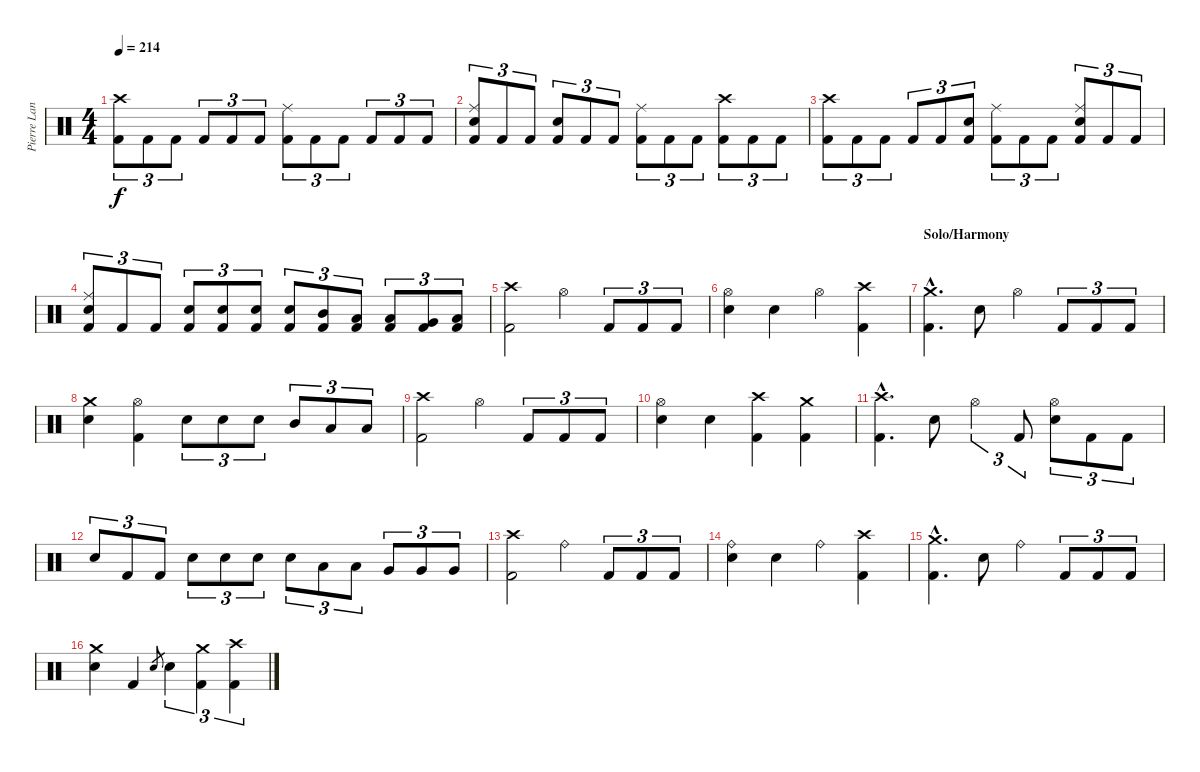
\track ("Pierre Langlois (Drums)" "Pierre Lan") {instrument percussion}
\staff {score}
\articulation defaults
\ts (4 4)
\tempo 214
\clef neutral
\ks c
("Crash high (hit)" "Kick (hit) 2").8{tu (3 2) dy f} "Kick (hit) 2".8{tu (3 2)} "Kick (hit) 2".8{tu (3 2)} "Kick (hit) 2".8{tu (3 2)} "Kick (hit) 2".8{tu (3 2)} "Kick (hit) 2".8{tu (3 2)} ("Ride (middle)" "Kick (hit) 2").8{tu (3 2)} "Kick (hit) 2".8{tu (3 2)} "Kick (hit) 2".8{tu (3 2)} "Kick (hit) 2".8{tu (3 2)} "Kick (hit) 2".8{tu (3 2)} "Kick (hit) 2".8{tu (3 2)} |
("Snare (hit) 2" "Ride (middle)" "Kick (hit) 2").8{tu (3 2)} "Kick (hit) 2".8{tu (3 2)} "Kick (hit) 2".8{tu (3 2)} ("Snare (hit) 2" "Kick (hit) 2").8{tu (3 2)} "Kick (hit) 2".8{tu (3 2)} "Kick (hit) 2".8{tu (3 2)} ("Ride (middle)" "Kick (hit) 2").8{tu (3 2)} "Kick (hit) 2".8{tu (3 2)} "Kick (hit) 2".8{tu (3 2)} ("Crash high (hit)" "Kick (hit) 2").8{tu (3 2)} "Kick (hit) 2".8{tu (3 2)} "Kick (hit) 2".8{tu (3 2)} |
("Crash high (hit)" "Kick (hit) 2").8{tu (3 2)} "Kick (hit) 2".8{tu (3 2)} "Kick (hit) 2".8{tu (3 2)} "Kick (hit) 2".8{tu (3 2)} "Kick (hit) 2".8{tu (3 2)} ("Snare (hit) 2" "Kick (hit) 2").8{tu (3 2)} ("Ride (middle)" "Kick (hit) 2").8{tu (3 2)} "Kick (hit) 2".8{tu (3 2)} "Kick (hit) 2".8{tu (3 2)} ("Ride (middle)" "Snare (hit) 2" "Kick (hit) 2").8{tu (3 2)} "Kick (hit) 2".8{tu (3 2)} "Kick (hit) 2".8{tu (3 2)} |
("Snare (hit) 2" "Ride (middle)" "Kick (hit) 2").8{tu (3 2)} "Kick (hit) 2".8{tu (3 2)} "Kick (hit) 2".8{tu (3 2)} ("Snare (hit) 2" "Kick (hit) 2").8{tu (3 2)} ("Snare (hit) 2" "Kick (hit) 2").8{tu (3 2)} ("Snare (hit) 2" "Kick (hit) 2").8{tu (3 2)} ("Snare (hit) 2" "Kick (hit) 2").8{tu (3 2)} ("Mid Tom (hit)" "Kick (hit) 2").8{tu (3 2)} ("Low Tom (hit)" "Kick (hit) 2").8{tu (3 2)} ("Low Tom (hit)" "Kick (hit) 2").8{tu (3 2)} ("Very Low Tom (hit)" "Kick (hit) 2").8{tu (3 2)} ("Low Floor Tom (hit)" "Kick (hit) 2").8{tu (3 2)} |
("Crash high (hit)" "Kick (hit) 2").2 "Hi-Hat (open)".4 "Kick (hit) 2".8{tu (3 2)} "Kick (hit) 2".8{tu (3 2)} "Kick (hit) 2".8{tu (3 2)} |
("Hi-Hat (open)" "Snare (hit) 2").4 "Snare (hit) 2".4 "Hi-Hat (open)".4 ("Crash high (hit)" "Kick (hit) 2").4 |
\section ("" "Solo/Harmony")
("Crash medium (hit)"{hac} "Kick (hit) 2"{hac}).4{d} "Snare (hit) 2".8 "Hi-Hat (open)".4 "Kick (hit) 2".8{tu (3 2)} "Kick (hit) 2".8{tu (3 2)} "Kick (hit) 2".8{tu (3 2)} |
("Crash medium (hit)" "Snare (hit) 2").4 ("Hi-Hat (open)" "Kick (hit) 2").4 "Snare (hit) 2".8{tu (3 2)} "Snare (hit) 2".8{tu (3 2)} "Snare (hit) 2".8{tu (3 2)} "Mid Tom (hit)".8{tu (3 2)} "Low Tom (hit)".8{tu (3 2)} "Low Floor Tom (hit)".8{tu (3 2)} |
("Crash high (hit)" "Kick (hit) 2").2 "Hi-Hat (open)".4 "Kick (hit) 2".8{tu (3 2)} "Kick (hit) 2".8{tu (3 2)} "Kick (hit) 2".8{tu (3 2)} |
("Hi-Hat (open)" "Snare (hit) 2").4 "Snare (hit) 2".4 ("Crash high (hit)" "Kick (hit) 2").4 ("Crash medium (hit)" "Kick (hit) 2").4 |
("Crash high (hit)"{hac} "Kick (hit) 2"{hac}).4{d} "Snare (hit) 2".8 "Hi-Hat (open)".4{tu (3 2)} "Kick (hit) 2".8{tu (3 2)} ("Hi-Hat (open)" "Snare (hit) 2").8{tu (3 2)} "Kick (hit) 2".8{tu (3 2)} "Kick (hit) 2".8{tu (3 2)} |
"Snare (hit) 2".8{tu (3 2)} "Kick (hit) 2".8{tu (3 2)} "Kick (hit) 2".8{tu (3 2)} "Snare (hit) 2".8{tu (3 2)} "Snare (hit) 2".8{tu (3 2)} "Snare (hit) 2".8{tu (3 2)} "Snare (hit) 2".8{tu (3 2)} "Low Tom (hit)".8{tu (3 2)} "Low Tom (hit)".8{tu (3 2)} "Very Low Tom (hit)".8{tu (3 2)} "Very Low Tom (hit)".8{tu (3 2)} "Very Low Tom (hit)".8{tu (3 2)} |
("Crash high (hit)" "Kick (hit) 2").2 "Ride (bell)".4 "Kick (hit) 2".8{tu (3 2)} "Kick (hit) 2".8{tu (3 2)} "Kick (hit) 2".8{tu (3 2)} |
("Ride (bell)" "Snare (hit) 2").4 "Snare (hit) 2".4 "Ride (bell)".4 ("Crash high (hit)" "Kick (hit) 2").4 |
("Crash medium (hit)"{hac} "Kick (hit) 2"{hac}).4{d} "Snare (hit) 2".8 "Ride (bell)".4 "Kick (hit) 2".8{tu (3 2)} "Kick (hit) 2".8{tu (3 2)} "Kick (hit) 2".8{tu (3 2)} |
("Crash medium (hit)" "Snare (hit) 2").4 "Kick (hit) 2".4 "Snare (hit) 2".8{gr} "Snare (hit) 2".4{tu (3 2)} ("Crash medium (hit)" "Kick (hit) 2").4{tu (3 2)} ("Crash high (hit)" "Kick (hit) 2").4{tu (3 2)}
